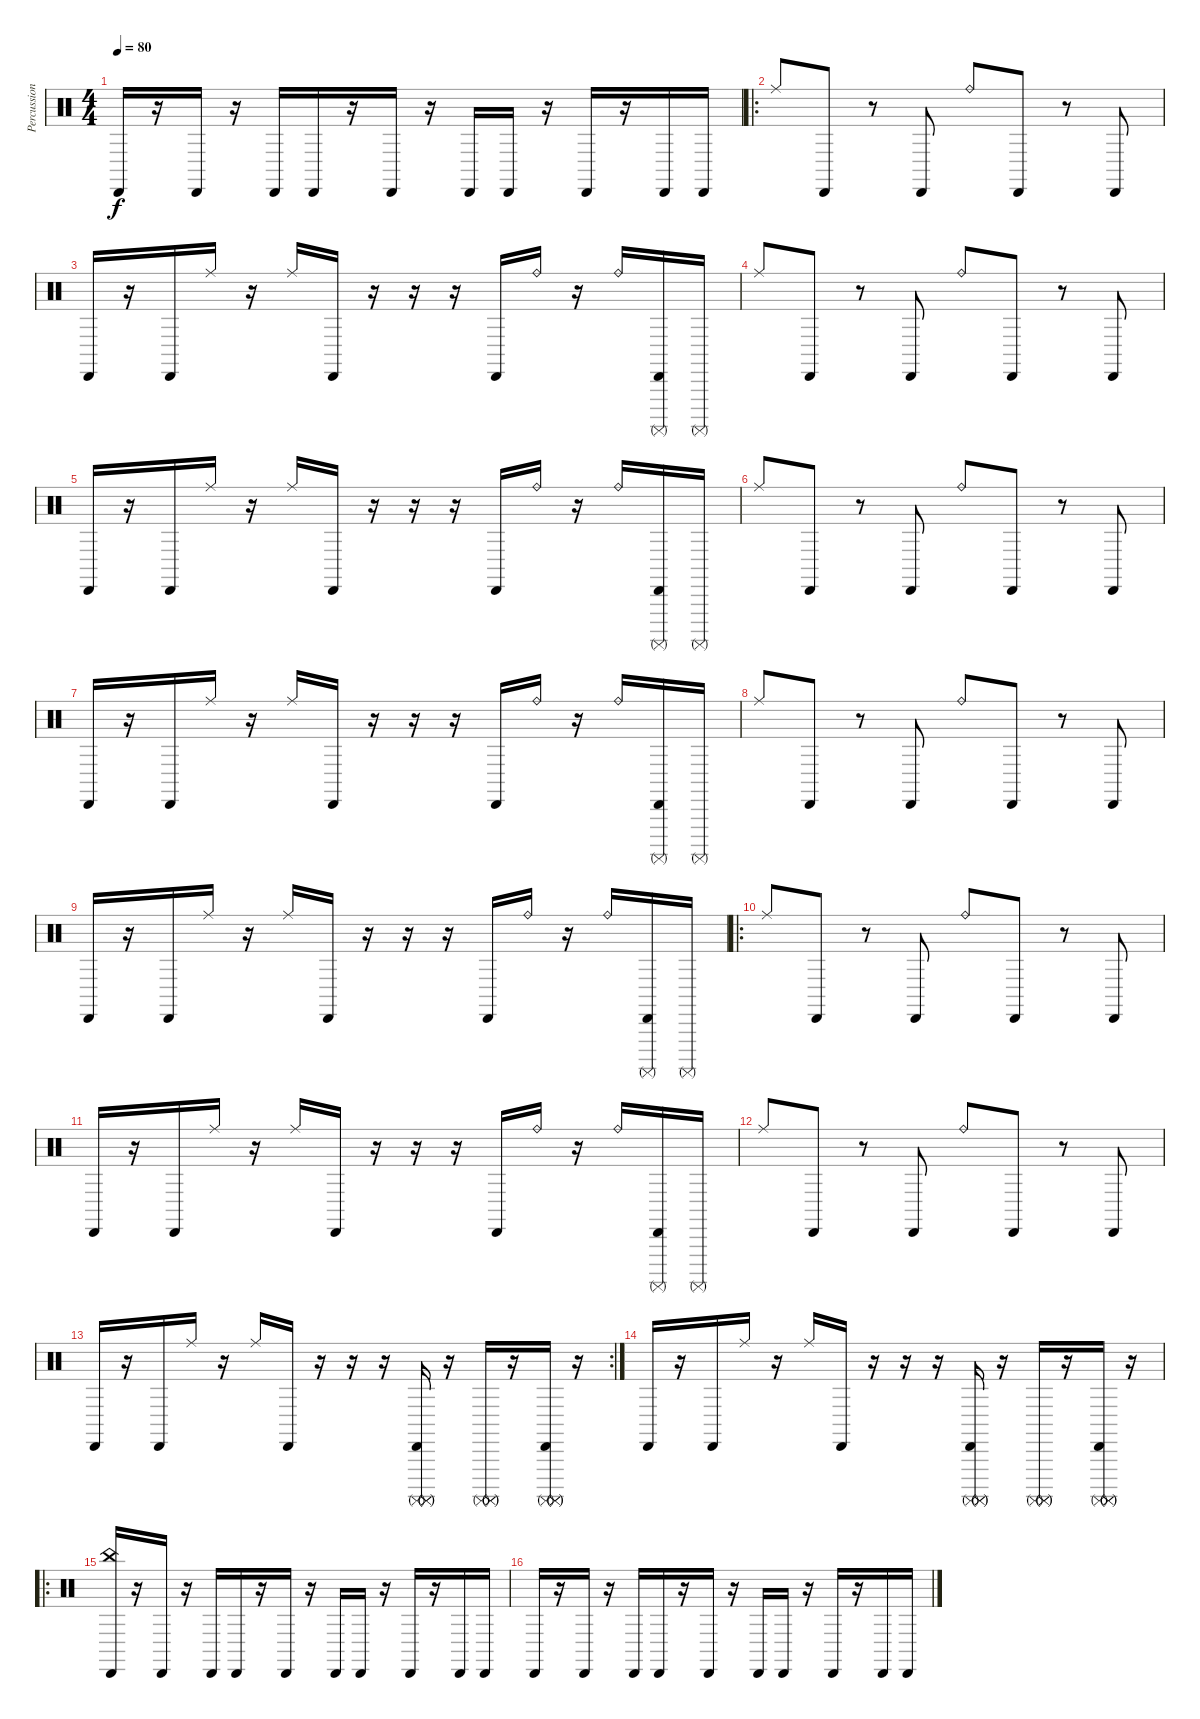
\track ("Percussion" "Percussion") {instrument percussion}
\staff {score}
\articulation defaults
\ts (4 4)
\tempo 80
\clef neutral
\ks c "Cabasa (hit)".16{dy f}
r.16 "Cabasa (hit)".16 r.16 "Cabasa (hit)".16 "Cabasa (hit)".16 r.16 "Cabasa (hit)".16 r.16 "Cabasa (hit)".16 "Cabasa (hit)".16 r.16 "Cabasa (hit)".16 r.16 "Cabasa (hit)".16 "Cabasa (hit)".16 |
\ro "Ride (middle)".8 "Cabasa (hit)".8
r.8 "Cabasa (hit)".8 "Ride (bell)".8 "Cabasa (hit)".8 r.8 "Cabasa (hit)".8 |
"Cabasa (hit)".16 r.16 "Cabasa (hit)".16 "Ride (middle)".16 r.16 "Ride (middle)".16 "Cabasa (hit)".16 r.16 r.16 r.16 "Cabasa (hit)".16 "Ride (bell)".16 r.16 "Ride (bell)".16 ("Cabasa (hit)" "Surdo (mute)").16 "Surdo (mute)".16 |
"Ride (middle)".8 "Cabasa (hit)".8 r.8 "Cabasa (hit)".8 "Ride (bell)".8 "Cabasa (hit)".8 r.8 "Cabasa (hit)".8 |
"Cabasa (hit)".16 r.16 "Cabasa (hit)".16 "Ride (middle)".16 r.16 "Ride (middle)".16 "Cabasa (hit)".16 r.16 r.16 r.16 "Cabasa (hit)".16 "Ride (bell)".16 r.16 "Ride (bell)".16 ("Cabasa (hit)" "Surdo (mute)").16 "Surdo (mute)".16 |
"Ride (middle)".8 "Cabasa (hit)".8 r.8 "Cabasa (hit)".8 "Ride (bell)".8 "Cabasa (hit)".8 r.8 "Cabasa (hit)".8 |
"Cabasa (hit)".16 r.16 "Cabasa (hit)".16 "Ride (middle)".16 r.16 "Ride (middle)".16 "Cabasa (hit)".16 r.16 r.16 r.16 "Cabasa (hit)".16 "Ride (bell)".16 r.16 "Ride (bell)".16 ("Cabasa (hit)" "Surdo (mute)").16 "Surdo (mute)".16 |
"Ride (middle)".8 "Cabasa (hit)".8 r.8 "Cabasa (hit)".8 "Ride (bell)".8 "Cabasa (hit)".8 r.8 "Cabasa (hit)".8 |
"Cabasa (hit)".16 r.16 "Cabasa (hit)".16 "Ride (middle)".16 r.16 "Ride (middle)".16 "Cabasa (hit)".16 r.16 r.16 r.16 "Cabasa (hit)".16 "Ride (bell)".16 r.16 "Ride (bell)".16 ("Cabasa (hit)" "Surdo (mute)").16 "Surdo (mute)".16 |
\ro "Ride (middle)".8 "Cabasa (hit)".8
r.8 "Cabasa (hit)".8 "Ride (bell)".8 "Cabasa (hit)".8 r.8 "Cabasa (hit)".8 |
"Cabasa (hit)".16 r.16 "Cabasa (hit)".16 "Ride (middle)".16 r.16 "Ride (middle)".16 "Cabasa (hit)".16 r.16 r.16 r.16 "Cabasa (hit)".16 "Ride (bell)".16 r.16 "Ride (bell)".16 ("Cabasa (hit)" "Surdo (mute)").16 "Surdo (mute)".16 |
"Ride (middle)".8 "Cabasa (hit)".8 r.8 "Cabasa (hit)".8 "Ride (bell)".8 "Cabasa (hit)".8 r.8 "Cabasa (hit)".8 |
\rc 2 "Cabasa (hit)".16
r.16 "Cabasa (hit)".16 "Ride (middle)".16 r.16 "Ride (middle)".16 "Cabasa (hit)".16 r.16 r.16 r.16 ("Cabasa (hit)" "Surdo (mute)" "Surdo (mute)" "Surdo (mute)").16 r.16 ("Surdo (mute)" "Surdo (mute)" "Surdo (mute)").16 r.16 ("Cabasa (hit)" "Surdo (mute)" "Surdo (mute)" "Surdo (mute)").16 r.16 |
"Cabasa (hit)".16 r.16 "Cabasa (hit)".16 "Ride (middle)".16 r.16 "Ride (middle)".16 "Cabasa (hit)".16 r.16 r.16 r.16 ("Cabasa (hit)" "Surdo (mute)" "Surdo (mute)" "Surdo (mute)").16 r.16 ("Surdo (mute)" "Surdo (mute)" "Surdo (mute)").16 r.16 ("Cabasa (hit)" "Surdo (mute)" "Surdo (mute)" "Surdo (mute)").16 r.16 |
\ro
("Cabasa (hit)" "China (hit)").16 r.16 "Cabasa (hit)".16 r.16 "Cabasa (hit)".16 "Cabasa (hit)".16 r.16 "Cabasa (hit)".16 r.16 "Cabasa (hit)".16 "Cabasa (hit)".16 r.16 "Cabasa (hit)".16 r.16 "Cabasa (hit)".16 "Cabasa (hit)".16 |
"Cabasa (hit)".16 r.16 "Cabasa (hit)".16 r.16 "Cabasa (hit)".16 "Cabasa (hit)".16 r.16 "Cabasa (hit)".16 r.16 "Cabasa (hit)".16 "Cabasa (hit)".16 r.16 "Cabasa (hit)".16 r.16 "Cabasa (hit)".16 "Cabasa (hit)".16
